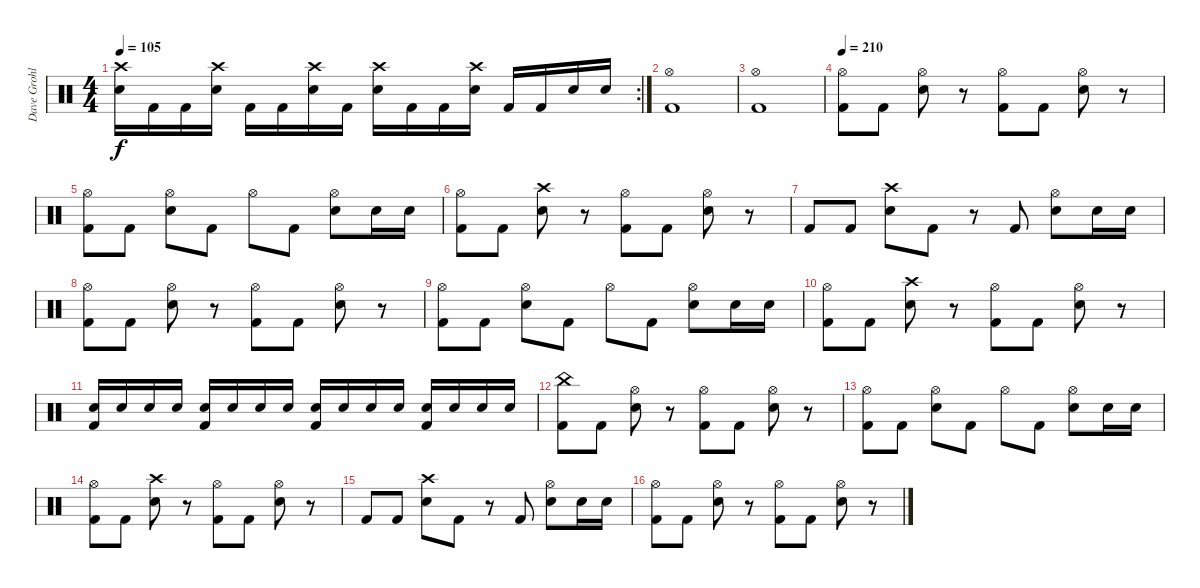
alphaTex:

\track ("Dave Grohl" "Dave Grohl") {instrument percussion}
\staff {score}
\articulation defaults
\rc 2
\ts (4 4)
\tempo 105
\clef neutral
\ks c
("Crash high (hit)" "Snare (hit) 2").16{dy f} "Kick (hit) 2".16 "Kick (hit) 2".16 ("Crash high (hit)" "Snare (hit) 2").16 "Kick (hit) 2".16 "Kick (hit) 2".16 ("Crash high (hit)" "Snare (hit) 2").16 "Kick (hit) 2".16 ("Crash high (hit)" "Snare (hit) 2").16 "Kick (hit) 2".16 "Kick (hit) 2".16 ("Crash high (hit)" "Snare (hit) 2").16 "Kick (hit) 2".16 "Kick (hit) 2".16 "Snare (hit) 2".16 "Snare (hit) 2".16 |
("Hi-Hat (open)" "Kick (hit) 2").1 |
("Hi-Hat (open)" "Kick (hit) 2").1 |
\tempo 210
("Hi-Hat (open)" "Kick (hit) 2").8 "Kick (hit) 2".8 ("Hi-Hat (open)" "Snare (hit) 2").8 r.8 ("Hi-Hat (open)" "Kick (hit) 2").8 "Kick (hit) 2".8 ("Hi-Hat (open)" "Snare (hit) 2").8 r.8 |
("Hi-Hat (open)" "Kick (hit) 2").8 "Kick (hit) 2".8 ("Hi-Hat (open)" "Snare (hit) 2").8 "Kick (hit) 2".8 "Hi-Hat (open)".8 "Kick (hit) 2".8 ("Hi-Hat (open)" "Snare (hit) 2").8 "Snare (hit) 2".16 "Snare (hit) 2".16 |
("Hi-Hat (open)" "Kick (hit) 2").8 "Kick (hit) 2".8 ("Crash high (hit)" "Snare (hit) 2").8 r.8 ("Hi-Hat (open)" "Kick (hit) 2").8 "Kick (hit) 2".8 ("Hi-Hat (open)" "Snare (hit) 2").8 r.8 |
"Kick (hit) 2".8 "Kick (hit) 2".8 ("Crash high (hit)" "Snare (hit) 2").8 "Kick (hit) 2".8 r.8 "Kick (hit) 2".8 ("Hi-Hat (open)" "Snare (hit) 2").8 "Snare (hit) 2".16 "Snare (hit) 2".16 |
("Hi-Hat (open)" "Kick (hit) 2").8 "Kick (hit) 2".8 ("Hi-Hat (open)" "Snare (hit) 2").8 r.8 ("Hi-Hat (open)" "Kick (hit) 2").8 "Kick (hit) 2".8 ("Hi-Hat (open)" "Snare (hit) 2").8 r.8 |
("Hi-Hat (open)" "Kick (hit) 2").8 "Kick (hit) 2".8 ("Hi-Hat (open)" "Snare (hit) 2").8 "Kick (hit) 2".8 "Hi-Hat (open)".8 "Kick (hit) 2".8 ("Hi-Hat (open)" "Snare (hit) 2").8 "Snare (hit) 2".16 "Snare (hit) 2".16 |
("Hi-Hat (open)" "Kick (hit) 2").8 "Kick (hit) 2".8 ("Crash high (hit)" "Snare (hit) 2").8 r.8 ("Hi-Hat (open)" "Kick (hit) 2").8 "Kick (hit) 2".8 ("Hi-Hat (open)" "Snare (hit) 2").8 r.8 |
("Kick (hit) 2" "Snare (hit) 2").16 "Snare (hit) 2".16 "Snare (hit) 2".16 "Snare (hit) 2".16 ("Kick (hit) 2" "Snare (hit) 2").16 "Snare (hit) 2".16 "Snare (hit) 2".16 "Snare (hit) 2".16 ("Kick (hit) 2" "Snare (hit) 2").16 "Snare (hit) 2".16 "Snare (hit) 2".16 "Snare (hit) 2".16 ("Kick (hit) 2" "Snare (hit) 2").16 "Snare (hit) 2".16 "Snare (hit) 2".16 "Snare (hit) 2".16 |
("China (hit)" "Kick (hit) 2").8 "Kick (hit) 2".8 ("Hi-Hat (open)" "Snare (hit) 2").8 r.8 ("Hi-Hat (open)" "Kick (hit) 2").8 "Kick (hit) 2".8 ("Hi-Hat (open)" "Snare (hit) 2").8 r.8 |
("Hi-Hat (open)" "Kick (hit) 2").8 "Kick (hit) 2".8 ("Hi-Hat (open)" "Snare (hit) 2").8 "Kick (hit) 2".8 "Hi-Hat (open)".8 "Kick (hit) 2".8 ("Hi-Hat (open)" "Snare (hit) 2").8 "Snare (hit) 2".16 "Snare (hit) 2".16 |
("Hi-Hat (open)" "Kick (hit) 2").8 "Kick (hit) 2".8 ("Crash high (hit)" "Snare (hit) 2").8 r.8 ("Hi-Hat (open)" "Kick (hit) 2").8 "Kick (hit) 2".8 ("Hi-Hat (open)" "Snare (hit) 2").8 r.8 |
"Kick (hit) 2".8 "Kick (hit) 2".8 ("Crash high (hit)" "Snare (hit) 2").8 "Kick (hit) 2".8 r.8 "Kick (hit) 2".8 ("Hi-Hat (open)" "Snare (hit) 2").8 "Snare (hit) 2".16 "Snare (hit) 2".16 |
("Hi-Hat (open)" "Kick (hit) 2").8 "Kick (hit) 2".8 ("Hi-Hat (open)" "Snare (hit) 2").8 r.8 ("Hi-Hat (open)" "Kick (hit) 2").8 "Kick (hit) 2".8 ("Hi-Hat (open)" "Snare (hit) 2").8 r.8
